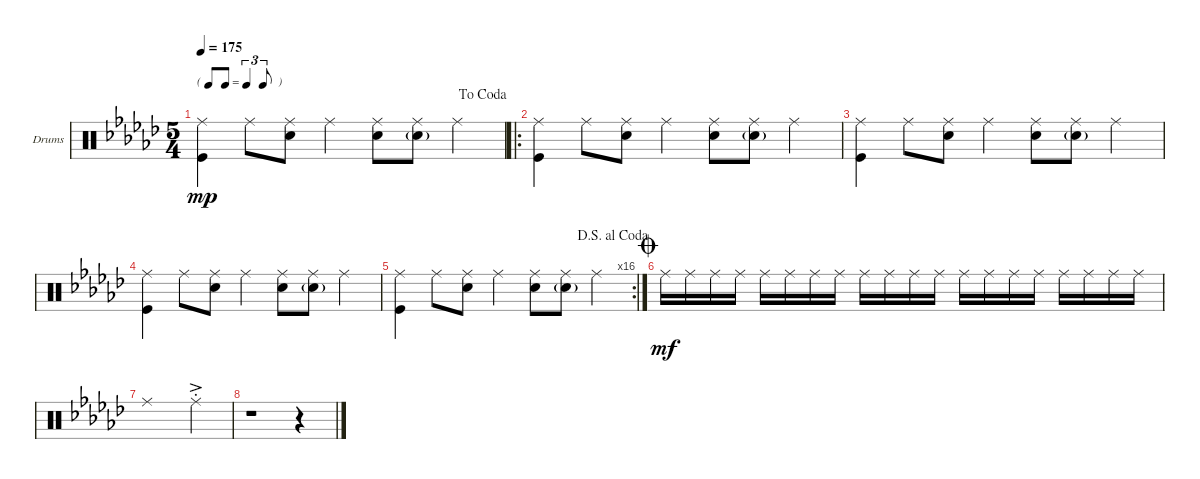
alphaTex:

\defaultSystemsLayout 4
\bracketExtendMode groupsimilarinstruments
\firstSystemTrackNameOrientation horizontal
\otherSystemsTrackNameOrientation horizontal
\track ("Drumkit" "Drums") {multiBarRest instrument percussion}
\staff {score}
\articulation defaults
\ts (5 4)
\tf triplet8th
\jump dacoda
\tempo 175
\clef neutral
\ks ebminor
("Ride (middle)" "Kick (hit)").4{dy mp} "Ride (middle)".8 ("Ride (middle)" "Snare (hit) 2").8 "Ride (middle)".4 ("Ride (middle)" "Snare (hit) 2").8 ("Ride (middle)" "Snare (hit) 2"{g}).8 "Ride (middle)".4 |
\ro
("Ride (middle)" "Kick (hit)").4 "Ride (middle)".8 ("Ride (middle)" "Snare (hit) 2").8 "Ride (middle)".4 ("Ride (middle)" "Snare (hit) 2").8 ("Ride (middle)" "Snare (hit) 2"{g}).8 "Ride (middle)".4 |
("Ride (middle)" "Kick (hit)").4 "Ride (middle)".8 ("Ride (middle)" "Snare (hit) 2").8 "Ride (middle)".4 ("Ride (middle)" "Snare (hit) 2").8 ("Ride (middle)" "Snare (hit) 2"{g}).8 "Ride (middle)".4 |
("Ride (middle)" "Kick (hit)").4 "Ride (middle)".8 ("Ride (middle)" "Snare (hit) 2").8 "Ride (middle)".4 ("Ride (middle)" "Snare (hit) 2").8 ("Ride (middle)" "Snare (hit) 2"{g}).8 "Ride (middle)".4 |
\rc 16
\jump dalsegnoalcoda
("Ride (middle)" "Kick (hit)").4 "Ride (middle)".8 ("Ride (middle)" "Snare (hit) 2").8 "Ride (middle)".4 ("Ride (middle)" "Snare (hit) 2").8 ("Ride (middle)" "Snare (hit) 2"{g}).8 "Ride (middle)".4 |
\jump coda "Ride (middle)".16{dy mf} "Ride (middle)".16 "Ride (middle)".16 "Ride (middle)".16 "Ride (middle)".16 "Ride (middle)".16 "Ride (middle)".16 "Ride (middle)".16 "Ride (middle)".16 "Ride (middle)".16 "Ride (middle)".16 "Ride (middle)".16 "Ride (middle)".16 "Ride (middle)".16 "Ride (middle)".16 "Ride (middle)".16 "Ride (middle)".16 "Ride (middle)".16 "Ride (middle)".16 "Ride (middle)".16
|
"Ride (middle)".1 "Ride (middle)"{ac st}.4 |
r.1 r.4
